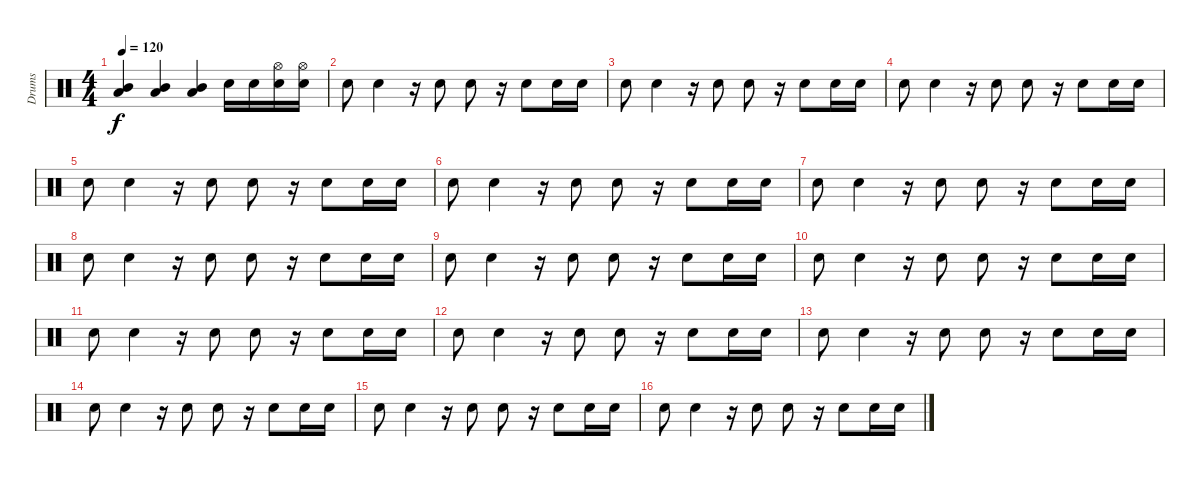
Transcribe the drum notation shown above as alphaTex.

\track ("Drums" "Drums") {instrument percussion}
\staff {score}
\articulation defaults
\ts (4 4)
\tempo 120
\clef neutral
\ks c
("Low Tom (hit)" "Mid Tom (hit)").4{dy f} ("Low Tom (hit)" "Mid Tom (hit)").4 ("Low Tom (hit)" "Mid Tom (hit)").4 "Snare (hit) 2".16 "Snare (hit) 2".16 ("Snare (hit) 2" "Hi-Hat (open)").16 ("Snare (hit) 2" "Hi-Hat (open)").16 |
"Snare (hit) 2".8 "Snare (hit) 2".4 r.16 "Snare (hit) 2".8 "Snare (hit) 2".8 r.16 "Snare (hit) 2".8 "Snare (hit) 2".16 "Snare (hit) 2".16 |
"Snare (hit) 2".8 "Snare (hit) 2".4 r.16 "Snare (hit) 2".8 "Snare (hit) 2".8 r.16 "Snare (hit) 2".8 "Snare (hit) 2".16 "Snare (hit) 2".16 |
"Snare (hit) 2".8 "Snare (hit) 2".4 r.16 "Snare (hit) 2".8 "Snare (hit) 2".8 r.16 "Snare (hit) 2".8 "Snare (hit) 2".16 "Snare (hit) 2".16 |
"Snare (hit) 2".8 "Snare (hit) 2".4 r.16 "Snare (hit) 2".8 "Snare (hit) 2".8 r.16 "Snare (hit) 2".8 "Snare (hit) 2".16 "Snare (hit) 2".16 |
"Snare (hit) 2".8 "Snare (hit) 2".4 r.16 "Snare (hit) 2".8 "Snare (hit) 2".8 r.16 "Snare (hit) 2".8 "Snare (hit) 2".16 "Snare (hit) 2".16 |
"Snare (hit) 2".8 "Snare (hit) 2".4 r.16 "Snare (hit) 2".8 "Snare (hit) 2".8 r.16 "Snare (hit) 2".8 "Snare (hit) 2".16 "Snare (hit) 2".16 |
"Snare (hit) 2".8 "Snare (hit) 2".4 r.16 "Snare (hit) 2".8 "Snare (hit) 2".8 r.16 "Snare (hit) 2".8 "Snare (hit) 2".16 "Snare (hit) 2".16 |
"Snare (hit) 2".8 "Snare (hit) 2".4 r.16 "Snare (hit) 2".8 "Snare (hit) 2".8 r.16 "Snare (hit) 2".8 "Snare (hit) 2".16 "Snare (hit) 2".16 |
"Snare (hit) 2".8 "Snare (hit) 2".4 r.16 "Snare (hit) 2".8 "Snare (hit) 2".8 r.16 "Snare (hit) 2".8 "Snare (hit) 2".16 "Snare (hit) 2".16 |
"Snare (hit) 2".8 "Snare (hit) 2".4 r.16 "Snare (hit) 2".8 "Snare (hit) 2".8 r.16 "Snare (hit) 2".8 "Snare (hit) 2".16 "Snare (hit) 2".16 |
"Snare (hit) 2".8 "Snare (hit) 2".4 r.16 "Snare (hit) 2".8 "Snare (hit) 2".8 r.16 "Snare (hit) 2".8 "Snare (hit) 2".16 "Snare (hit) 2".16 |
"Snare (hit) 2".8 "Snare (hit) 2".4 r.16 "Snare (hit) 2".8 "Snare (hit) 2".8 r.16 "Snare (hit) 2".8 "Snare (hit) 2".16 "Snare (hit) 2".16 |
"Snare (hit) 2".8 "Snare (hit) 2".4 r.16 "Snare (hit) 2".8 "Snare (hit) 2".8 r.16 "Snare (hit) 2".8 "Snare (hit) 2".16 "Snare (hit) 2".16 |
"Snare (hit) 2".8 "Snare (hit) 2".4 r.16 "Snare (hit) 2".8 "Snare (hit) 2".8 r.16 "Snare (hit) 2".8 "Snare (hit) 2".16 "Snare (hit) 2".16 |
"Snare (hit) 2".8 "Snare (hit) 2".4 r.16 "Snare (hit) 2".8 "Snare (hit) 2".8 r.16 "Snare (hit) 2".8 "Snare (hit) 2".16 "Snare (hit) 2".16
